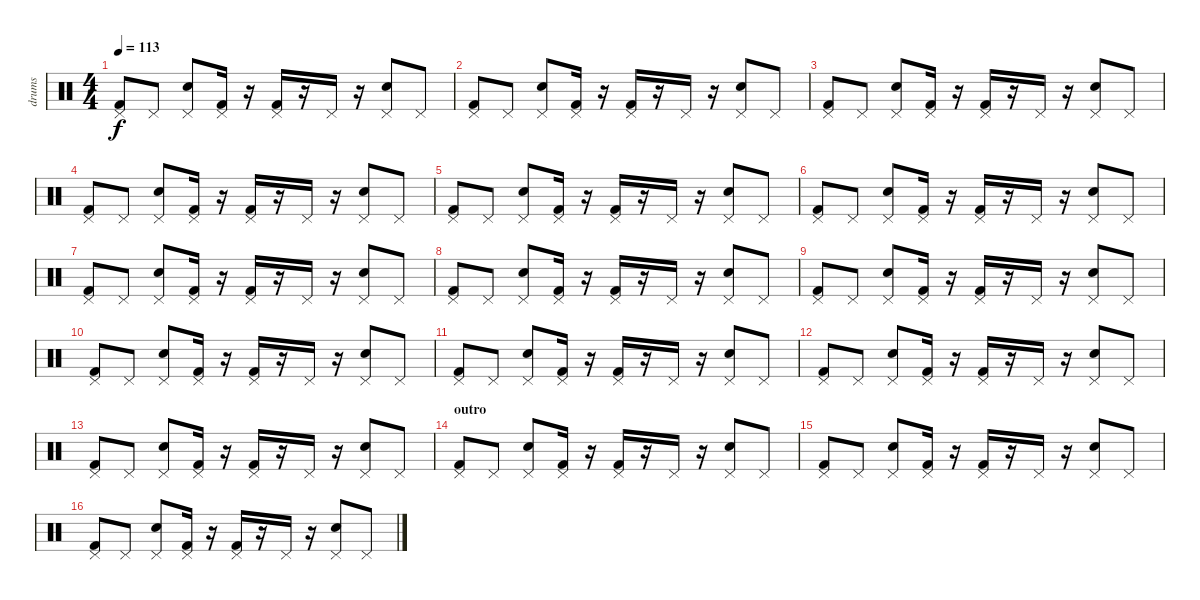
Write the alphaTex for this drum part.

\track ("drums" "drums") {instrument percussion}
\staff {score}
\articulation defaults
\ts (4 4)
\tempo 113
\clef neutral
\ks c
("Kick (hit) 2" "Pedal Hi-Hat (hit)").8{dy f} "Pedal Hi-Hat (hit)".8 ("Snare (hit) 2" "Pedal Hi-Hat (hit)").8 ("Kick (hit) 2" "Pedal Hi-Hat (hit)").16 r.16 ("Kick (hit) 2" "Pedal Hi-Hat (hit)").16 r.16 "Pedal Hi-Hat (hit)".16 r.16 ("Snare (hit) 2" "Pedal Hi-Hat (hit)").8 "Pedal Hi-Hat (hit)".8 |
("Kick (hit) 2" "Pedal Hi-Hat (hit)").8 "Pedal Hi-Hat (hit)".8 ("Snare (hit) 2" "Pedal Hi-Hat (hit)").8 ("Kick (hit) 2" "Pedal Hi-Hat (hit)").16 r.16 ("Kick (hit) 2" "Pedal Hi-Hat (hit)").16 r.16 "Pedal Hi-Hat (hit)".16 r.16 ("Snare (hit) 2" "Pedal Hi-Hat (hit)").8 "Pedal Hi-Hat (hit)".8 |
("Kick (hit) 2" "Pedal Hi-Hat (hit)").8 "Pedal Hi-Hat (hit)".8 ("Snare (hit) 2" "Pedal Hi-Hat (hit)").8 ("Kick (hit) 2" "Pedal Hi-Hat (hit)").16 r.16 ("Kick (hit) 2" "Pedal Hi-Hat (hit)").16 r.16 "Pedal Hi-Hat (hit)".16 r.16 ("Snare (hit) 2" "Pedal Hi-Hat (hit)").8 "Pedal Hi-Hat (hit)".8 |
("Kick (hit) 2" "Pedal Hi-Hat (hit)").8 "Pedal Hi-Hat (hit)".8 ("Snare (hit) 2" "Pedal Hi-Hat (hit)").8 ("Kick (hit) 2" "Pedal Hi-Hat (hit)").16 r.16 ("Kick (hit) 2" "Pedal Hi-Hat (hit)").16 r.16 "Pedal Hi-Hat (hit)".16 r.16 ("Snare (hit) 2" "Pedal Hi-Hat (hit)").8 "Pedal Hi-Hat (hit)".8 |
("Kick (hit) 2" "Pedal Hi-Hat (hit)").8 "Pedal Hi-Hat (hit)".8 ("Snare (hit) 2" "Pedal Hi-Hat (hit)").8 ("Kick (hit) 2" "Pedal Hi-Hat (hit)").16 r.16 ("Kick (hit) 2" "Pedal Hi-Hat (hit)").16 r.16 "Pedal Hi-Hat (hit)".16 r.16 ("Snare (hit) 2" "Pedal Hi-Hat (hit)").8 "Pedal Hi-Hat (hit)".8 |
("Kick (hit) 2" "Pedal Hi-Hat (hit)").8 "Pedal Hi-Hat (hit)".8 ("Snare (hit) 2" "Pedal Hi-Hat (hit)").8 ("Kick (hit) 2" "Pedal Hi-Hat (hit)").16 r.16 ("Kick (hit) 2" "Pedal Hi-Hat (hit)").16 r.16 "Pedal Hi-Hat (hit)".16 r.16 ("Snare (hit) 2" "Pedal Hi-Hat (hit)").8 "Pedal Hi-Hat (hit)".8 |
("Kick (hit) 2" "Pedal Hi-Hat (hit)").8 "Pedal Hi-Hat (hit)".8 ("Snare (hit) 2" "Pedal Hi-Hat (hit)").8 ("Kick (hit) 2" "Pedal Hi-Hat (hit)").16 r.16 ("Kick (hit) 2" "Pedal Hi-Hat (hit)").16 r.16 "Pedal Hi-Hat (hit)".16 r.16 ("Snare (hit) 2" "Pedal Hi-Hat (hit)").8 "Pedal Hi-Hat (hit)".8 |
("Kick (hit) 2" "Pedal Hi-Hat (hit)").8 "Pedal Hi-Hat (hit)".8 ("Snare (hit) 2" "Pedal Hi-Hat (hit)").8 ("Kick (hit) 2" "Pedal Hi-Hat (hit)").16 r.16 ("Kick (hit) 2" "Pedal Hi-Hat (hit)").16 r.16 "Pedal Hi-Hat (hit)".16 r.16 ("Snare (hit) 2" "Pedal Hi-Hat (hit)").8 "Pedal Hi-Hat (hit)".8 |
("Kick (hit) 2" "Pedal Hi-Hat (hit)").8 "Pedal Hi-Hat (hit)".8 ("Snare (hit) 2" "Pedal Hi-Hat (hit)").8 ("Kick (hit) 2" "Pedal Hi-Hat (hit)").16 r.16 ("Kick (hit) 2" "Pedal Hi-Hat (hit)").16 r.16 "Pedal Hi-Hat (hit)".16 r.16 ("Snare (hit) 2" "Pedal Hi-Hat (hit)").8 "Pedal Hi-Hat (hit)".8 |
("Kick (hit) 2" "Pedal Hi-Hat (hit)").8 "Pedal Hi-Hat (hit)".8 ("Snare (hit) 2" "Pedal Hi-Hat (hit)").8 ("Kick (hit) 2" "Pedal Hi-Hat (hit)").16 r.16 ("Kick (hit) 2" "Pedal Hi-Hat (hit)").16 r.16 "Pedal Hi-Hat (hit)".16 r.16 ("Snare (hit) 2" "Pedal Hi-Hat (hit)").8 "Pedal Hi-Hat (hit)".8 |
("Kick (hit) 2" "Pedal Hi-Hat (hit)").8 "Pedal Hi-Hat (hit)".8 ("Snare (hit) 2" "Pedal Hi-Hat (hit)").8 ("Kick (hit) 2" "Pedal Hi-Hat (hit)").16 r.16 ("Kick (hit) 2" "Pedal Hi-Hat (hit)").16 r.16 "Pedal Hi-Hat (hit)".16 r.16 ("Snare (hit) 2" "Pedal Hi-Hat (hit)").8 "Pedal Hi-Hat (hit)".8 |
("Kick (hit) 2" "Pedal Hi-Hat (hit)").8 "Pedal Hi-Hat (hit)".8 ("Snare (hit) 2" "Pedal Hi-Hat (hit)").8 ("Kick (hit) 2" "Pedal Hi-Hat (hit)").16 r.16 ("Kick (hit) 2" "Pedal Hi-Hat (hit)").16 r.16 "Pedal Hi-Hat (hit)".16 r.16 ("Snare (hit) 2" "Pedal Hi-Hat (hit)").8 "Pedal Hi-Hat (hit)".8 |
("Kick (hit) 2" "Pedal Hi-Hat (hit)").8 "Pedal Hi-Hat (hit)".8 ("Snare (hit) 2" "Pedal Hi-Hat (hit)").8 ("Kick (hit) 2" "Pedal Hi-Hat (hit)").16 r.16 ("Kick (hit) 2" "Pedal Hi-Hat (hit)").16 r.16 "Pedal Hi-Hat (hit)".16 r.16 ("Snare (hit) 2" "Pedal Hi-Hat (hit)").8 "Pedal Hi-Hat (hit)".8 |
\section ("" "outro")
("Kick (hit) 2" "Pedal Hi-Hat (hit)").8 "Pedal Hi-Hat (hit)".8 ("Snare (hit) 2" "Pedal Hi-Hat (hit)").8 ("Kick (hit) 2" "Pedal Hi-Hat (hit)").16 r.16 ("Kick (hit) 2" "Pedal Hi-Hat (hit)").16 r.16 "Pedal Hi-Hat (hit)".16 r.16 ("Snare (hit) 2" "Pedal Hi-Hat (hit)").8 "Pedal Hi-Hat (hit)".8 |
("Kick (hit) 2" "Pedal Hi-Hat (hit)").8 "Pedal Hi-Hat (hit)".8 ("Snare (hit) 2" "Pedal Hi-Hat (hit)").8 ("Kick (hit) 2" "Pedal Hi-Hat (hit)").16 r.16 ("Kick (hit) 2" "Pedal Hi-Hat (hit)").16 r.16 "Pedal Hi-Hat (hit)".16 r.16 ("Snare (hit) 2" "Pedal Hi-Hat (hit)").8 "Pedal Hi-Hat (hit)".8 |
("Kick (hit) 2" "Pedal Hi-Hat (hit)").8 "Pedal Hi-Hat (hit)".8 ("Snare (hit) 2" "Pedal Hi-Hat (hit)").8 ("Kick (hit) 2" "Pedal Hi-Hat (hit)").16 r.16 ("Kick (hit) 2" "Pedal Hi-Hat (hit)").16 r.16 "Pedal Hi-Hat (hit)".16 r.16 ("Snare (hit) 2" "Pedal Hi-Hat (hit)").8 "Pedal Hi-Hat (hit)".8
